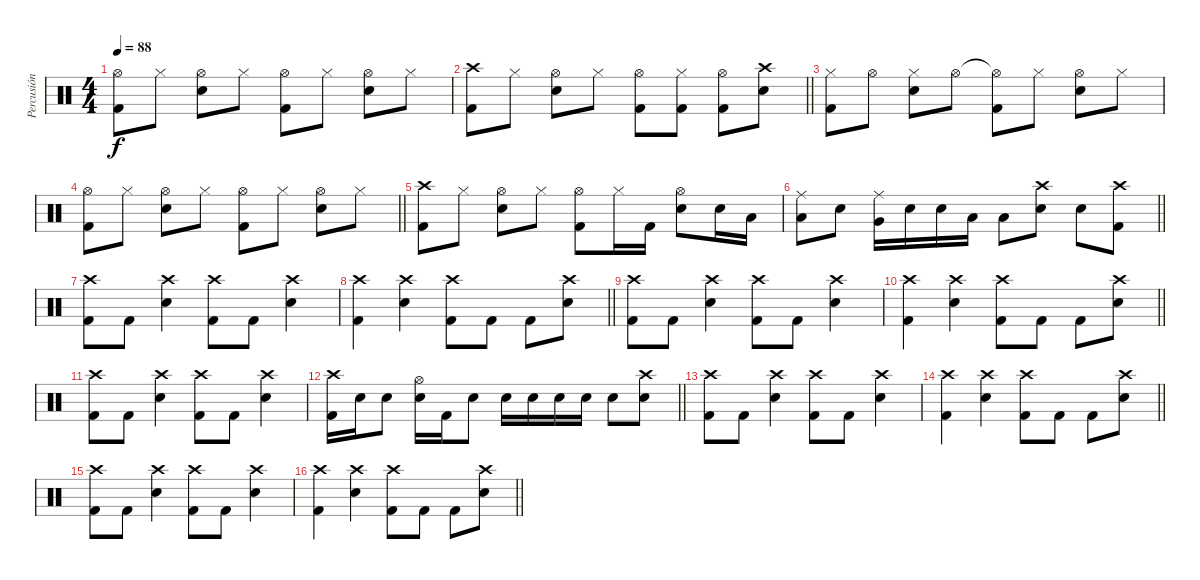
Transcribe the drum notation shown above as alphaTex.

\track ("Percusión" "Percusión") {instrument percussion}
\staff {score}
\articulation defaults
\ts (4 4)
\tempo 88
\clef neutral
\ks c
("Hi-Hat (open)" "Kick (hit) 2").8{dy f} "Hi-Hat (closed)".8 ("Hi-Hat (open)" "Electric Snare (hit)").8 "Hi-Hat (closed)".8 ("Hi-Hat (open)" "Kick (hit) 2").8 "Hi-Hat (closed)".8 ("Hi-Hat (open)" "Electric Snare (hit)").8 "Hi-Hat (closed)".8 |
\barLineRight lightlight
("Crash high (hit)" "Kick (hit) 2").8 "Hi-Hat (closed)".8 ("Hi-Hat (open)" "Electric Snare (hit)").8 "Hi-Hat (closed)".8 ("Hi-Hat (open)" "Kick (hit) 2").8 ("Hi-Hat (closed)" "Kick (hit) 2").8 ("Hi-Hat (open)" "Kick (hit) 2").8 ("Crash high (hit)" "Electric Snare (hit)").8 |
("Hi-Hat (closed)" "Kick (hit) 2").8 "Hi-Hat (open)".8 ("Hi-Hat (closed)" "Electric Snare (hit)").8 "Hi-Hat (open)".8 ("Hi-Hat (open)"{t} "Kick (hit) 2").8 "Hi-Hat (closed)".8 ("Hi-Hat (open)" "Electric Snare (hit)").8 "Hi-Hat (closed)".8 |
\barLineRight lightlight
("Hi-Hat (open)" "Kick (hit) 2").8 "Hi-Hat (closed)".8 ("Hi-Hat (open)" "Electric Snare (hit)").8 "Hi-Hat (closed)".8 ("Hi-Hat (open)" "Kick (hit) 2").8 "Hi-Hat (closed)".8 ("Hi-Hat (open)" "Electric Snare (hit)").8 "Hi-Hat (closed)".8 |
("Crash high (hit)" "Kick (hit) 2").8 "Hi-Hat (closed)".8 ("Hi-Hat (open)" "Electric Snare (hit)").8 "Hi-Hat (closed)".8 ("Hi-Hat (open)" "Kick (hit) 2").8 "Hi-Hat (closed)".16 "Kick (hit) 2".16 ("Hi-Hat (open)" "Electric Snare (hit)").8 "Electric Snare (hit)".16 "Low Tom (hit)".16 |
\barLineRight lightlight
("Ride (middle)" "Low Tom (hit)").8 "Electric Snare (hit)".8 ("Ride (middle)" "Very Low Tom (hit)").16 "Electric Snare (hit)".16 "Electric Snare (hit)".16 "Low Tom (hit)".16 "Low Tom (hit)".8 ("Crash high (hit)" "Electric Snare (hit)").8 "Electric Snare (hit)".8 ("Crash high (hit)" "Kick (hit) 2").8 |
("Crash high (hit)" "Kick (hit) 2").8 "Kick (hit) 2".8 ("Crash high (hit)" "Electric Snare (hit)").4 ("Crash high (hit)" "Kick (hit) 2").8 "Kick (hit) 2".8 ("Crash high (hit)" "Electric Snare (hit)").4 |
\barLineRight lightlight
("Crash high (hit)" "Kick (hit) 2").4 ("Crash high (hit)" "Electric Snare (hit)").4 ("Crash high (hit)" "Kick (hit) 2").8 "Kick (hit) 2".8 "Kick (hit) 2".8 ("Crash high (hit)" "Electric Snare (hit)").8 |
("Crash high (hit)" "Kick (hit) 2").8 "Kick (hit) 2".8 ("Crash high (hit)" "Electric Snare (hit)").4 ("Crash high (hit)" "Kick (hit) 2").8 "Kick (hit) 2".8 ("Crash high (hit)" "Electric Snare (hit)").4 |
\barLineRight lightlight
("Crash high (hit)" "Kick (hit) 2").4 ("Crash high (hit)" "Electric Snare (hit)").4 ("Crash high (hit)" "Kick (hit) 2").8 "Kick (hit) 2".8 "Kick (hit) 2".8 ("Crash high (hit)" "Electric Snare (hit)").8 |
("Crash high (hit)" "Kick (hit) 2").8 "Kick (hit) 2".8 ("Crash high (hit)" "Electric Snare (hit)").4 ("Crash high (hit)" "Kick (hit) 2").8 "Kick (hit) 2".8 ("Crash high (hit)" "Electric Snare (hit)").4 |
\barLineRight lightlight
("Crash high (hit)" "Kick (hit) 2").16 "Electric Snare (hit)".16 "Electric Snare (hit)".8 ("Hi-Hat (open)" "Electric Snare (hit)").16 "Kick (hit) 2".16 "Electric Snare (hit)".8 "Electric Snare (hit)".16 "Electric Snare (hit)".16 "Electric Snare (hit)".16 "Electric Snare (hit)".16 "Electric Snare (hit)".8 ("Crash high (hit)" "Electric Snare (hit)").8 |
("Crash high (hit)" "Kick (hit) 2").8 "Kick (hit) 2".8 ("Crash high (hit)" "Electric Snare (hit)").4 ("Crash high (hit)" "Kick (hit) 2").8 "Kick (hit) 2".8 ("Crash high (hit)" "Electric Snare (hit)").4 |
\barLineRight lightlight
("Crash high (hit)" "Kick (hit) 2").4 ("Crash high (hit)" "Electric Snare (hit)").4 ("Crash high (hit)" "Kick (hit) 2").8 "Kick (hit) 2".8 "Kick (hit) 2".8 ("Crash high (hit)" "Electric Snare (hit)").8 |
("Crash high (hit)" "Kick (hit) 2").8 "Kick (hit) 2".8 ("Crash high (hit)" "Electric Snare (hit)").4 ("Crash high (hit)" "Kick (hit) 2").8 "Kick (hit) 2".8 ("Crash high (hit)" "Electric Snare (hit)").4 |
\barLineRight lightlight
("Crash high (hit)" "Kick (hit) 2").4 ("Crash high (hit)" "Electric Snare (hit)").4 ("Crash high (hit)" "Kick (hit) 2").8 "Kick (hit) 2".8 "Kick (hit) 2".8 ("Crash high (hit)" "Electric Snare (hit)").8
